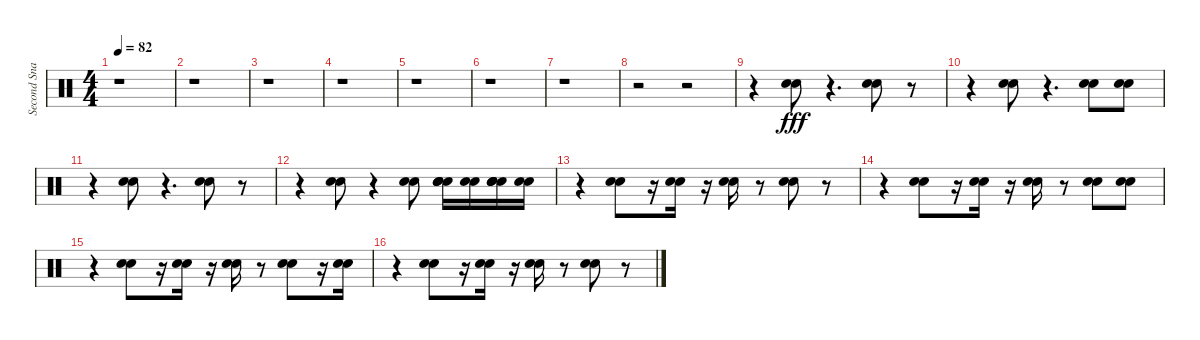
\track ("Second Snare" "Second Sna") {instrument percussion}
\staff {score}
\articulation defaults
\ts (4 4)
\tempo 82
\clef neutral
\ks c
r.1{dy fff} |
r.1 |
r.1 |
r.1 |
r.1 |
r.1 |
r.1 |
r.2 r.2 |
r.4 ("Snare (hit) 2" "Electric Snare (hit)").8 r.4{d} ("Snare (hit) 2" "Electric Snare (hit)").8 r.8 |
r.4 ("Snare (hit) 2" "Electric Snare (hit)").8 r.4{d} ("Snare (hit) 2" "Electric Snare (hit)").8 ("Snare (hit) 2" "Electric Snare (hit)").8 |
r.4 ("Snare (hit) 2" "Electric Snare (hit)").8 r.4{d} ("Snare (hit) 2" "Electric Snare (hit)").8 r.8 |
r.4 ("Snare (hit) 2" "Electric Snare (hit)").8 r.4 ("Snare (hit) 2" "Electric Snare (hit)").8 ("Snare (hit) 2" "Snare (hit) 2" "Electric Snare (hit)" "Electric Snare (hit)").16 ("Snare (hit) 2" "Electric Snare (hit)").16 ("Snare (hit) 2" "Snare (hit) 2" "Electric Snare (hit)" "Electric Snare (hit)").16 ("Snare (hit) 2" "Electric Snare (hit)").16 |
r.4 ("Snare (hit) 2" "Electric Snare (hit)").8 r.16 ("Snare (hit) 2" "Electric Snare (hit)").16 r.16 ("Snare (hit) 2" "Electric Snare (hit)").16 r.8 ("Snare (hit) 2" "Electric Snare (hit)").8 r.8 |
r.4 ("Snare (hit) 2" "Electric Snare (hit)").8 r.16 ("Snare (hit) 2" "Electric Snare (hit)").16 r.16 ("Snare (hit) 2" "Electric Snare (hit)").16 r.8 ("Snare (hit) 2" "Electric Snare (hit)").8 ("Electric Snare (hit)" "Snare (hit) 2").8 |
r.4 ("Snare (hit) 2" "Electric Snare (hit)").8 r.16 ("Snare (hit) 2" "Electric Snare (hit)").16 r.16 ("Snare (hit) 2" "Electric Snare (hit)").16 r.8 ("Snare (hit) 2" "Electric Snare (hit)").8 r.16 ("Snare (hit) 2" "Electric Snare (hit)").16 |
r.4 ("Snare (hit) 2" "Electric Snare (hit)").8 r.16 ("Snare (hit) 2" "Electric Snare (hit)").16 r.16 ("Snare (hit) 2" "Electric Snare (hit)").16 r.8 ("Snare (hit) 2" "Electric Snare (hit)").8 r.8
